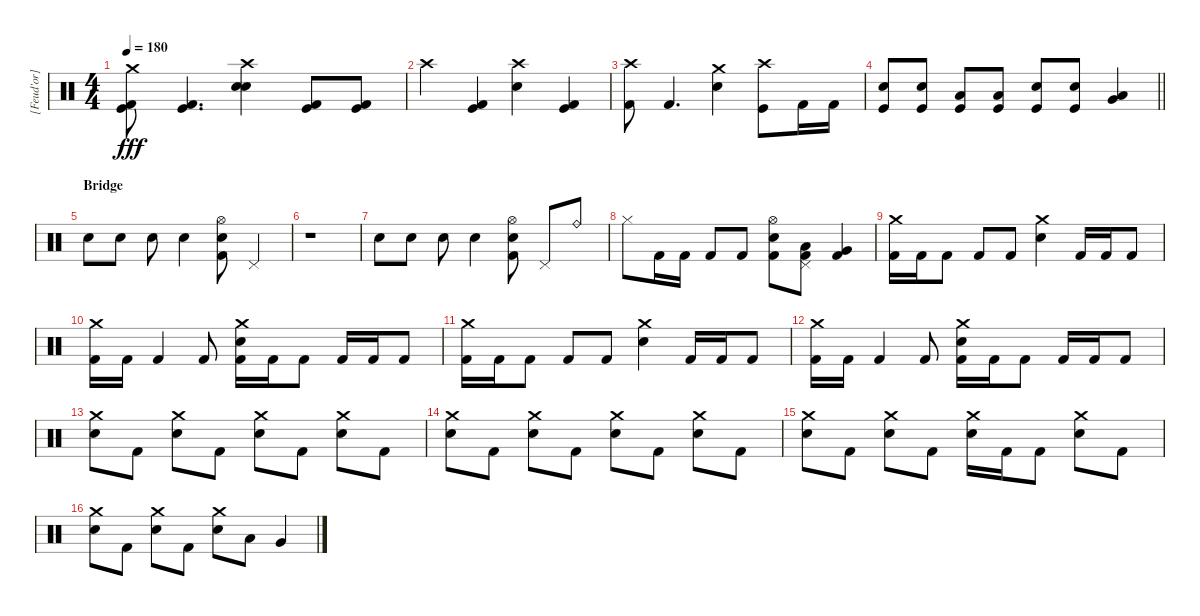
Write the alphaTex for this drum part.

\track ("[Feud'or] - Drums" "[Feud'or] ") {instrument percussion}
\staff {score}
\articulation defaults
\ts (4 4)
\tempo 180
\clef neutral
\ks c
("Crash medium (hit)" "Kick (hit)" "Kick (hit) 2").8{dy fff} ("Kick (hit)" "Kick (hit) 2").4{d} ("Crash high (hit)" "Snare (hit) 2" "Electric Snare (hit)").4 ("Kick (hit)" "Kick (hit) 2").8 ("Kick (hit) 2" "Kick (hit)").8 |
"Crash high (hit)".4 ("Kick (hit)" "Kick (hit) 2").4 ("Crash high (hit)" "Snare (hit) 2").4 ("Kick (hit) 2" "Kick (hit)").4 |
("Crash high (hit)" "Kick (hit) 2").8 "Kick (hit) 2".4{d} ("Crash medium (hit)" "Snare (hit) 2").4 ("Crash high (hit)" "Kick (hit)").8 "Kick (hit) 2".16 "Kick (hit) 2".16 |
\barLineRight lightlight
("Kick (hit)" "Electric Snare (hit)").8 ("Kick (hit)" "Electric Snare (hit)").8 ("Kick (hit)" "Low Tom (hit)").8 ("Kick (hit)" "Low Floor Tom (hit)").8 ("Kick (hit)" "Electric Snare (hit)").8 ("Kick (hit)" "Electric Snare (hit)").8 ("Very Low Tom (hit)" "Low Floor Tom (hit)").4 |
\section ("" "Bridge")
"Electric Snare (hit)".8 "Electric Snare (hit)".8 "Electric Snare (hit)".8 "Electric Snare (hit)".4 ("Hi-Hat (open)" "Electric Snare (hit)" "Kick (hit) 2").8 "Pedal Hi-Hat (hit)".4 |
r.1 |
"Electric Snare (hit)".8 "Electric Snare (hit)".8 "Electric Snare (hit)".8 "Electric Snare (hit)".4 ("Hi-Hat (open)" "Electric Snare (hit)" "Kick (hit) 2").8 "Pedal Hi-Hat (hit)".8 "Ride (bell)".8 |
"Hi-Hat (closed)".8 "Kick (hit) 2".16 "Kick (hit) 2".16 "Kick (hit) 2".8 "Kick (hit) 2".8 ("Hi-Hat (open)" "Electric Snare (hit)" "Kick (hit) 2").8 ("Pedal Hi-Hat (hit)" "Low Tom (hit)" "Kick (hit) 2").8 ("Very Low Tom (hit)" "Kick (hit) 2").4 |
("Crash medium (hit)" "Kick (hit) 2").16 "Kick (hit) 2".16 "Kick (hit) 2".8 "Kick (hit) 2".8 "Kick (hit) 2".8 ("Crash medium (hit)" "Electric Snare (hit)").4 "Kick (hit) 2".16 "Kick (hit) 2".16 "Kick (hit) 2".8 |
("Crash medium (hit)" "Kick (hit) 2").16 "Kick (hit) 2".16 "Kick (hit) 2".4 "Kick (hit) 2".8 ("Crash medium (hit)" "Electric Snare (hit)" "Kick (hit) 2").16 "Kick (hit) 2".16 "Kick (hit) 2".8 "Kick (hit) 2".16 "Kick (hit) 2".16 "Kick (hit) 2".8 |
("Crash medium (hit)" "Kick (hit) 2").16 "Kick (hit) 2".16 "Kick (hit) 2".8 "Kick (hit) 2".8 "Kick (hit) 2".8 ("Crash medium (hit)" "Electric Snare (hit)").4 "Kick (hit) 2".16 "Kick (hit) 2".16 "Kick (hit) 2".8 |
("Crash medium (hit)" "Kick (hit) 2").16 "Kick (hit) 2".16 "Kick (hit) 2".4 "Kick (hit) 2".8 ("Crash medium (hit)" "Electric Snare (hit)" "Kick (hit) 2").16 "Kick (hit) 2".16 "Kick (hit) 2".8 "Kick (hit) 2".16 "Kick (hit) 2".16 "Kick (hit) 2".8 |
("Crash medium (hit)" "Electric Snare (hit)").8 "Kick (hit) 2".8 ("Crash medium (hit)" "Electric Snare (hit)").8 "Kick (hit) 2".8 ("Crash medium (hit)" "Electric Snare (hit)").8 "Kick (hit) 2".8 ("Crash medium (hit)" "Electric Snare (hit)").8 "Kick (hit) 2".8 |
("Crash medium (hit)" "Electric Snare (hit)").8 "Kick (hit) 2".8 ("Crash medium (hit)" "Electric Snare (hit)").8 "Kick (hit) 2".8 ("Crash medium (hit)" "Electric Snare (hit)").8 "Kick (hit) 2".8 ("Crash medium (hit)" "Electric Snare (hit)").8 "Kick (hit) 2".8 |
("Crash medium (hit)" "Electric Snare (hit)").8 "Kick (hit) 2".8 ("Crash medium (hit)" "Electric Snare (hit)").8 "Kick (hit) 2".8 ("Crash medium (hit)" "Electric Snare (hit)").16 "Kick (hit) 2".16 "Kick (hit) 2".8 ("Crash medium (hit)" "Electric Snare (hit)").8 "Kick (hit) 2".8 |
("Crash medium (hit)" "Electric Snare (hit)").8 "Kick (hit) 2".8 ("Crash medium (hit)" "Electric Snare (hit)").8 "Kick (hit) 2".8 ("Crash medium (hit)" "Electric Snare (hit)").8 "Low Tom (hit)".8 "Very Low Tom (hit)".4
